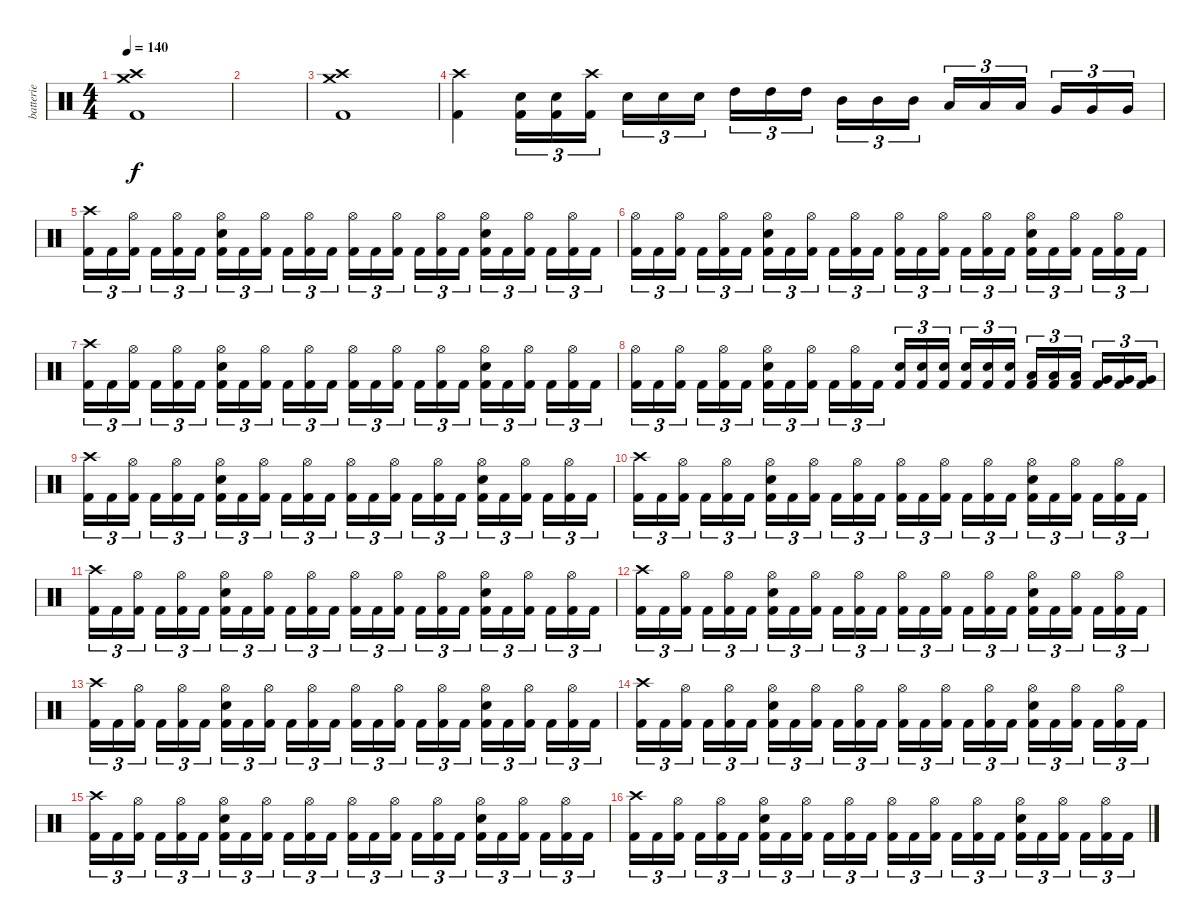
\track ("batterie" "batterie") {instrument percussion}
\staff {score}
\articulation defaults
\ts (4 4)
\tempo 140
\clef neutral
\ks c
("Crash medium (hit)" "Crash high (hit)" "Kick (hit) 2").1{dy f} |
|
("Crash medium (hit)" "Crash high (hit)" "Kick (hit) 2").1 |
("Crash high (hit)" "Kick (hit) 2").4 ("Electric Snare (hit)" "Kick (hit) 2").16{tu (3 2)} ("Electric Snare (hit)" "Kick (hit) 2").16{tu (3 2)} ("Crash high (hit)" "Kick (hit) 2").16{tu (3 2)} "Electric Snare (hit)".16{tu (3 2)} "Electric Snare (hit)".16{tu (3 2)} "Electric Snare (hit)".16{tu (3 2)} "High Tom (hit)".16{tu (3 2)} "High Tom (hit)".16{tu (3 2)} "High Tom (hit)".16{tu (3 2)} "Mid Tom (hit)".16{tu (3 2)} "Mid Tom (hit)".16{tu (3 2)} "Mid Tom (hit)".16{tu (3 2)} "Low Tom (hit)".16{tu (3 2)} "Low Tom (hit)".16{tu (3 2)} "Low Tom (hit)".16{tu (3 2)} "Very Low Tom (hit)".16{tu (3 2)} "Very Low Tom (hit)".16{tu (3 2)} "Very Low Tom (hit)".16{tu (3 2)} |
("Crash high (hit)" "Kick (hit) 2").16{tu (3 2)} "Kick (hit) 2".16{tu (3 2)} ("Hi-Hat (open)" "Kick (hit) 2").16{tu (3 2)} "Kick (hit) 2".16{tu (3 2)} ("Hi-Hat (open)" "Kick (hit) 2").16{tu (3 2)} "Kick (hit) 2".16{tu (3 2)} ("Hi-Hat (open)" "Electric Snare (hit)" "Kick (hit) 2").16{tu (3 2)} "Kick (hit) 2".16{tu (3 2)} ("Hi-Hat (open)" "Kick (hit) 2").16{tu (3 2)} "Kick (hit) 2".16{tu (3 2)} ("Hi-Hat (open)" "Kick (hit) 2").16{tu (3 2)} "Kick (hit) 2".16{tu (3 2)} ("Hi-Hat (open)" "Kick (hit) 2").16{tu (3 2)} "Kick (hit) 2".16{tu (3 2)} ("Hi-Hat (open)" "Kick (hit) 2").16{tu (3 2)} "Kick (hit) 2".16{tu (3 2)} ("Hi-Hat (open)" "Kick (hit) 2").16{tu (3 2)} "Kick (hit) 2".16{tu (3 2)} ("Hi-Hat (open)" "Electric Snare (hit)" "Kick (hit) 2").16{tu (3 2)} "Kick (hit) 2".16{tu (3 2)} ("Hi-Hat (open)" "Kick (hit) 2").16{tu (3 2)} "Kick (hit) 2".16{tu (3 2)} ("Hi-Hat (open)" "Kick (hit) 2").16{tu (3 2)} "Kick (hit) 2".16{tu (3 2)} |
("Hi-Hat (open)" "Kick (hit) 2").16{tu (3 2)} "Kick (hit) 2".16{tu (3 2)} ("Hi-Hat (open)" "Kick (hit) 2").16{tu (3 2)} "Kick (hit) 2".16{tu (3 2)} ("Hi-Hat (open)" "Kick (hit) 2").16{tu (3 2)} "Kick (hit) 2".16{tu (3 2)} ("Hi-Hat (open)" "Electric Snare (hit)" "Kick (hit) 2").16{tu (3 2)} "Kick (hit) 2".16{tu (3 2)} ("Hi-Hat (open)" "Kick (hit) 2").16{tu (3 2)} "Kick (hit) 2".16{tu (3 2)} ("Hi-Hat (open)" "Kick (hit) 2").16{tu (3 2)} "Kick (hit) 2".16{tu (3 2)} ("Hi-Hat (open)" "Kick (hit) 2").16{tu (3 2)} "Kick (hit) 2".16{tu (3 2)} ("Hi-Hat (open)" "Kick (hit) 2").16{tu (3 2)} "Kick (hit) 2".16{tu (3 2)} ("Hi-Hat (open)" "Kick (hit) 2").16{tu (3 2)} "Kick (hit) 2".16{tu (3 2)} ("Hi-Hat (open)" "Electric Snare (hit)" "Kick (hit) 2").16{tu (3 2)} "Kick (hit) 2".16{tu (3 2)} ("Hi-Hat (open)" "Kick (hit) 2").16{tu (3 2)} "Kick (hit) 2".16{tu (3 2)} ("Hi-Hat (open)" "Kick (hit) 2").16{tu (3 2)} "Kick (hit) 2".16{tu (3 2)} |
("Crash high (hit)" "Kick (hit) 2").16{tu (3 2)} "Kick (hit) 2".16{tu (3 2)} ("Hi-Hat (open)" "Kick (hit) 2").16{tu (3 2)} "Kick (hit) 2".16{tu (3 2)} ("Hi-Hat (open)" "Kick (hit) 2").16{tu (3 2)} "Kick (hit) 2".16{tu (3 2)} ("Hi-Hat (open)" "Electric Snare (hit)" "Kick (hit) 2").16{tu (3 2)} "Kick (hit) 2".16{tu (3 2)} ("Hi-Hat (open)" "Kick (hit) 2").16{tu (3 2)} "Kick (hit) 2".16{tu (3 2)} ("Hi-Hat (open)" "Kick (hit) 2").16{tu (3 2)} "Kick (hit) 2".16{tu (3 2)} ("Hi-Hat (open)" "Kick (hit) 2").16{tu (3 2)} "Kick (hit) 2".16{tu (3 2)} ("Hi-Hat (open)" "Kick (hit) 2").16{tu (3 2)} "Kick (hit) 2".16{tu (3 2)} ("Hi-Hat (open)" "Kick (hit) 2").16{tu (3 2)} "Kick (hit) 2".16{tu (3 2)} ("Hi-Hat (open)" "Electric Snare (hit)" "Kick (hit) 2").16{tu (3 2)} "Kick (hit) 2".16{tu (3 2)} ("Hi-Hat (open)" "Kick (hit) 2").16{tu (3 2)} "Kick (hit) 2".16{tu (3 2)} ("Hi-Hat (open)" "Kick (hit) 2").16{tu (3 2)} "Kick (hit) 2".16{tu (3 2)} |
("Hi-Hat (open)" "Kick (hit) 2").16{tu (3 2)} "Kick (hit) 2".16{tu (3 2)} ("Hi-Hat (open)" "Kick (hit) 2").16{tu (3 2)} "Kick (hit) 2".16{tu (3 2)} ("Hi-Hat (open)" "Kick (hit) 2").16{tu (3 2)} "Kick (hit) 2".16{tu (3 2)} ("Hi-Hat (open)" "Electric Snare (hit)" "Kick (hit) 2").16{tu (3 2)} "Kick (hit) 2".16{tu (3 2)} ("Hi-Hat (open)" "Kick (hit) 2").16{tu (3 2)} "Kick (hit) 2".16{tu (3 2)} ("Hi-Hat (open)" "Kick (hit) 2").16{tu (3 2)} "Kick (hit) 2".16{tu (3 2)} ("Electric Snare (hit)" "Kick (hit) 2").16{tu (3 2)} ("Electric Snare (hit)" "Kick (hit) 2").16{tu (3 2)} ("Electric Snare (hit)" "Kick (hit) 2").16{tu (3 2)} ("Electric Snare (hit)" "Kick (hit) 2").16{tu (3 2)} ("Electric Snare (hit)" "Kick (hit) 2").16{tu (3 2)} ("Electric Snare (hit)" "Kick (hit) 2").16{tu (3 2)} ("Low Tom (hit)" "Kick (hit) 2").16{tu (3 2)} ("Low Tom (hit)" "Kick (hit) 2").16{tu (3 2)} ("Low Tom (hit)" "Kick (hit) 2").16{tu (3 2)} ("Very Low Tom (hit)" "Kick (hit) 2").16{tu (3 2)} ("Very Low Tom (hit)" "Kick (hit) 2").16{tu (3 2)} ("Very Low Tom (hit)" "Kick (hit) 2").16{tu (3 2)} |
("Crash high (hit)" "Kick (hit) 2").16{tu (3 2)} "Kick (hit) 2".16{tu (3 2)} ("Hi-Hat (open)" "Kick (hit) 2").16{tu (3 2)} "Kick (hit) 2".16{tu (3 2)} ("Hi-Hat (open)" "Kick (hit) 2").16{tu (3 2)} "Kick (hit) 2".16{tu (3 2)} ("Hi-Hat (open)" "Electric Snare (hit)" "Kick (hit) 2").16{tu (3 2)} "Kick (hit) 2".16{tu (3 2)} ("Hi-Hat (open)" "Kick (hit) 2").16{tu (3 2)} "Kick (hit) 2".16{tu (3 2)} ("Hi-Hat (open)" "Kick (hit) 2").16{tu (3 2)} "Kick (hit) 2".16{tu (3 2)} ("Hi-Hat (open)" "Kick (hit) 2").16{tu (3 2)} "Kick (hit) 2".16{tu (3 2)} ("Hi-Hat (open)" "Kick (hit) 2").16{tu (3 2)} "Kick (hit) 2".16{tu (3 2)} ("Hi-Hat (open)" "Kick (hit) 2").16{tu (3 2)} "Kick (hit) 2".16{tu (3 2)} ("Hi-Hat (open)" "Electric Snare (hit)" "Kick (hit) 2").16{tu (3 2)} "Kick (hit) 2".16{tu (3 2)} ("Hi-Hat (open)" "Kick (hit) 2").16{tu (3 2)} "Kick (hit) 2".16{tu (3 2)} ("Hi-Hat (open)" "Kick (hit) 2").16{tu (3 2)} "Kick (hit) 2".16{tu (3 2)} |
("Crash high (hit)" "Kick (hit) 2").16{tu (3 2)} "Kick (hit) 2".16{tu (3 2)} ("Hi-Hat (open)" "Kick (hit) 2").16{tu (3 2)} "Kick (hit) 2".16{tu (3 2)} ("Hi-Hat (open)" "Kick (hit) 2").16{tu (3 2)} "Kick (hit) 2".16{tu (3 2)} ("Hi-Hat (open)" "Electric Snare (hit)" "Kick (hit) 2").16{tu (3 2)} "Kick (hit) 2".16{tu (3 2)} ("Hi-Hat (open)" "Kick (hit) 2").16{tu (3 2)} "Kick (hit) 2".16{tu (3 2)} ("Hi-Hat (open)" "Kick (hit) 2").16{tu (3 2)} "Kick (hit) 2".16{tu (3 2)} ("Hi-Hat (open)" "Kick (hit) 2").16{tu (3 2)} "Kick (hit) 2".16{tu (3 2)} ("Hi-Hat (open)" "Kick (hit) 2").16{tu (3 2)} "Kick (hit) 2".16{tu (3 2)} ("Hi-Hat (open)" "Kick (hit) 2").16{tu (3 2)} "Kick (hit) 2".16{tu (3 2)} ("Hi-Hat (open)" "Electric Snare (hit)" "Kick (hit) 2").16{tu (3 2)} "Kick (hit) 2".16{tu (3 2)} ("Hi-Hat (open)" "Kick (hit) 2").16{tu (3 2)} "Kick (hit) 2".16{tu (3 2)} ("Hi-Hat (open)" "Kick (hit) 2").16{tu (3 2)} "Kick (hit) 2".16{tu (3 2)} |
("Crash high (hit)" "Kick (hit) 2").16{tu (3 2)} "Kick (hit) 2".16{tu (3 2)} ("Hi-Hat (open)" "Kick (hit) 2").16{tu (3 2)} "Kick (hit) 2".16{tu (3 2)} ("Hi-Hat (open)" "Kick (hit) 2").16{tu (3 2)} "Kick (hit) 2".16{tu (3 2)} ("Hi-Hat (open)" "Electric Snare (hit)" "Kick (hit) 2").16{tu (3 2)} "Kick (hit) 2".16{tu (3 2)} ("Hi-Hat (open)" "Kick (hit) 2").16{tu (3 2)} "Kick (hit) 2".16{tu (3 2)} ("Hi-Hat (open)" "Kick (hit) 2").16{tu (3 2)} "Kick (hit) 2".16{tu (3 2)} ("Hi-Hat (open)" "Kick (hit) 2").16{tu (3 2)} "Kick (hit) 2".16{tu (3 2)} ("Hi-Hat (open)" "Kick (hit) 2").16{tu (3 2)} "Kick (hit) 2".16{tu (3 2)} ("Hi-Hat (open)" "Kick (hit) 2").16{tu (3 2)} "Kick (hit) 2".16{tu (3 2)} ("Hi-Hat (open)" "Electric Snare (hit)" "Kick (hit) 2").16{tu (3 2)} "Kick (hit) 2".16{tu (3 2)} ("Hi-Hat (open)" "Kick (hit) 2").16{tu (3 2)} "Kick (hit) 2".16{tu (3 2)} ("Hi-Hat (open)" "Kick (hit) 2").16{tu (3 2)} "Kick (hit) 2".16{tu (3 2)} |
("Crash high (hit)" "Kick (hit) 2").16{tu (3 2)} "Kick (hit) 2".16{tu (3 2)} ("Hi-Hat (open)" "Kick (hit) 2").16{tu (3 2)} "Kick (hit) 2".16{tu (3 2)} ("Hi-Hat (open)" "Kick (hit) 2").16{tu (3 2)} "Kick (hit) 2".16{tu (3 2)} ("Hi-Hat (open)" "Electric Snare (hit)" "Kick (hit) 2").16{tu (3 2)} "Kick (hit) 2".16{tu (3 2)} ("Hi-Hat (open)" "Kick (hit) 2").16{tu (3 2)} "Kick (hit) 2".16{tu (3 2)} ("Hi-Hat (open)" "Kick (hit) 2").16{tu (3 2)} "Kick (hit) 2".16{tu (3 2)} ("Hi-Hat (open)" "Kick (hit) 2").16{tu (3 2)} "Kick (hit) 2".16{tu (3 2)} ("Hi-Hat (open)" "Kick (hit) 2").16{tu (3 2)} "Kick (hit) 2".16{tu (3 2)} ("Hi-Hat (open)" "Kick (hit) 2").16{tu (3 2)} "Kick (hit) 2".16{tu (3 2)} ("Hi-Hat (open)" "Electric Snare (hit)" "Kick (hit) 2").16{tu (3 2)} "Kick (hit) 2".16{tu (3 2)} ("Hi-Hat (open)" "Kick (hit) 2").16{tu (3 2)} "Kick (hit) 2".16{tu (3 2)} ("Hi-Hat (open)" "Kick (hit) 2").16{tu (3 2)} "Kick (hit) 2".16{tu (3 2)} |
("Crash high (hit)" "Kick (hit) 2").16{tu (3 2)} "Kick (hit) 2".16{tu (3 2)} ("Hi-Hat (open)" "Kick (hit) 2").16{tu (3 2)} "Kick (hit) 2".16{tu (3 2)} ("Hi-Hat (open)" "Kick (hit) 2").16{tu (3 2)} "Kick (hit) 2".16{tu (3 2)} ("Hi-Hat (open)" "Electric Snare (hit)" "Kick (hit) 2").16{tu (3 2)} "Kick (hit) 2".16{tu (3 2)} ("Hi-Hat (open)" "Kick (hit) 2").16{tu (3 2)} "Kick (hit) 2".16{tu (3 2)} ("Hi-Hat (open)" "Kick (hit) 2").16{tu (3 2)} "Kick (hit) 2".16{tu (3 2)} ("Hi-Hat (open)" "Kick (hit) 2").16{tu (3 2)} "Kick (hit) 2".16{tu (3 2)} ("Hi-Hat (open)" "Kick (hit) 2").16{tu (3 2)} "Kick (hit) 2".16{tu (3 2)} ("Hi-Hat (open)" "Kick (hit) 2").16{tu (3 2)} "Kick (hit) 2".16{tu (3 2)} ("Hi-Hat (open)" "Electric Snare (hit)" "Kick (hit) 2").16{tu (3 2)} "Kick (hit) 2".16{tu (3 2)} ("Hi-Hat (open)" "Kick (hit) 2").16{tu (3 2)} "Kick (hit) 2".16{tu (3 2)} ("Hi-Hat (open)" "Kick (hit) 2").16{tu (3 2)} "Kick (hit) 2".16{tu (3 2)} |
("Crash high (hit)" "Kick (hit) 2").16{tu (3 2)} "Kick (hit) 2".16{tu (3 2)} ("Hi-Hat (open)" "Kick (hit) 2").16{tu (3 2)} "Kick (hit) 2".16{tu (3 2)} ("Hi-Hat (open)" "Kick (hit) 2").16{tu (3 2)} "Kick (hit) 2".16{tu (3 2)} ("Hi-Hat (open)" "Electric Snare (hit)" "Kick (hit) 2").16{tu (3 2)} "Kick (hit) 2".16{tu (3 2)} ("Hi-Hat (open)" "Kick (hit) 2").16{tu (3 2)} "Kick (hit) 2".16{tu (3 2)} ("Hi-Hat (open)" "Kick (hit) 2").16{tu (3 2)} "Kick (hit) 2".16{tu (3 2)} ("Hi-Hat (open)" "Kick (hit) 2").16{tu (3 2)} "Kick (hit) 2".16{tu (3 2)} ("Hi-Hat (open)" "Kick (hit) 2").16{tu (3 2)} "Kick (hit) 2".16{tu (3 2)} ("Hi-Hat (open)" "Kick (hit) 2").16{tu (3 2)} "Kick (hit) 2".16{tu (3 2)} ("Hi-Hat (open)" "Electric Snare (hit)" "Kick (hit) 2").16{tu (3 2)} "Kick (hit) 2".16{tu (3 2)} ("Hi-Hat (open)" "Kick (hit) 2").16{tu (3 2)} "Kick (hit) 2".16{tu (3 2)} ("Hi-Hat (open)" "Kick (hit) 2").16{tu (3 2)} "Kick (hit) 2".16{tu (3 2)} |
("Crash high (hit)" "Kick (hit) 2").16{tu (3 2)} "Kick (hit) 2".16{tu (3 2)} ("Hi-Hat (open)" "Kick (hit) 2").16{tu (3 2)} "Kick (hit) 2".16{tu (3 2)} ("Hi-Hat (open)" "Kick (hit) 2").16{tu (3 2)} "Kick (hit) 2".16{tu (3 2)} ("Hi-Hat (open)" "Electric Snare (hit)" "Kick (hit) 2").16{tu (3 2)} "Kick (hit) 2".16{tu (3 2)} ("Hi-Hat (open)" "Kick (hit) 2").16{tu (3 2)} "Kick (hit) 2".16{tu (3 2)} ("Hi-Hat (open)" "Kick (hit) 2").16{tu (3 2)} "Kick (hit) 2".16{tu (3 2)} ("Hi-Hat (open)" "Kick (hit) 2").16{tu (3 2)} "Kick (hit) 2".16{tu (3 2)} ("Hi-Hat (open)" "Kick (hit) 2").16{tu (3 2)} "Kick (hit) 2".16{tu (3 2)} ("Hi-Hat (open)" "Kick (hit) 2").16{tu (3 2)} "Kick (hit) 2".16{tu (3 2)} ("Hi-Hat (open)" "Electric Snare (hit)" "Kick (hit) 2").16{tu (3 2)} "Kick (hit) 2".16{tu (3 2)} ("Hi-Hat (open)" "Kick (hit) 2").16{tu (3 2)} "Kick (hit) 2".16{tu (3 2)} ("Hi-Hat (open)" "Kick (hit) 2").16{tu (3 2)} "Kick (hit) 2".16{tu (3 2)} |
("Crash high (hit)" "Kick (hit) 2").16{tu (3 2)} "Kick (hit) 2".16{tu (3 2)} ("Hi-Hat (open)" "Kick (hit) 2").16{tu (3 2)} "Kick (hit) 2".16{tu (3 2)} ("Hi-Hat (open)" "Kick (hit) 2").16{tu (3 2)} "Kick (hit) 2".16{tu (3 2)} ("Hi-Hat (open)" "Electric Snare (hit)" "Kick (hit) 2").16{tu (3 2)} "Kick (hit) 2".16{tu (3 2)} ("Hi-Hat (open)" "Kick (hit) 2").16{tu (3 2)} "Kick (hit) 2".16{tu (3 2)} ("Hi-Hat (open)" "Kick (hit) 2").16{tu (3 2)} "Kick (hit) 2".16{tu (3 2)} ("Hi-Hat (open)" "Kick (hit) 2").16{tu (3 2)} "Kick (hit) 2".16{tu (3 2)} ("Hi-Hat (open)" "Kick (hit) 2").16{tu (3 2)} "Kick (hit) 2".16{tu (3 2)} ("Hi-Hat (open)" "Kick (hit) 2").16{tu (3 2)} "Kick (hit) 2".16{tu (3 2)} ("Hi-Hat (open)" "Electric Snare (hit)" "Kick (hit) 2").16{tu (3 2)} "Kick (hit) 2".16{tu (3 2)} ("Hi-Hat (open)" "Kick (hit) 2").16{tu (3 2)} "Kick (hit) 2".16{tu (3 2)} ("Hi-Hat (open)" "Kick (hit) 2").16{tu (3 2)} "Kick (hit) 2".16{tu (3 2)}
